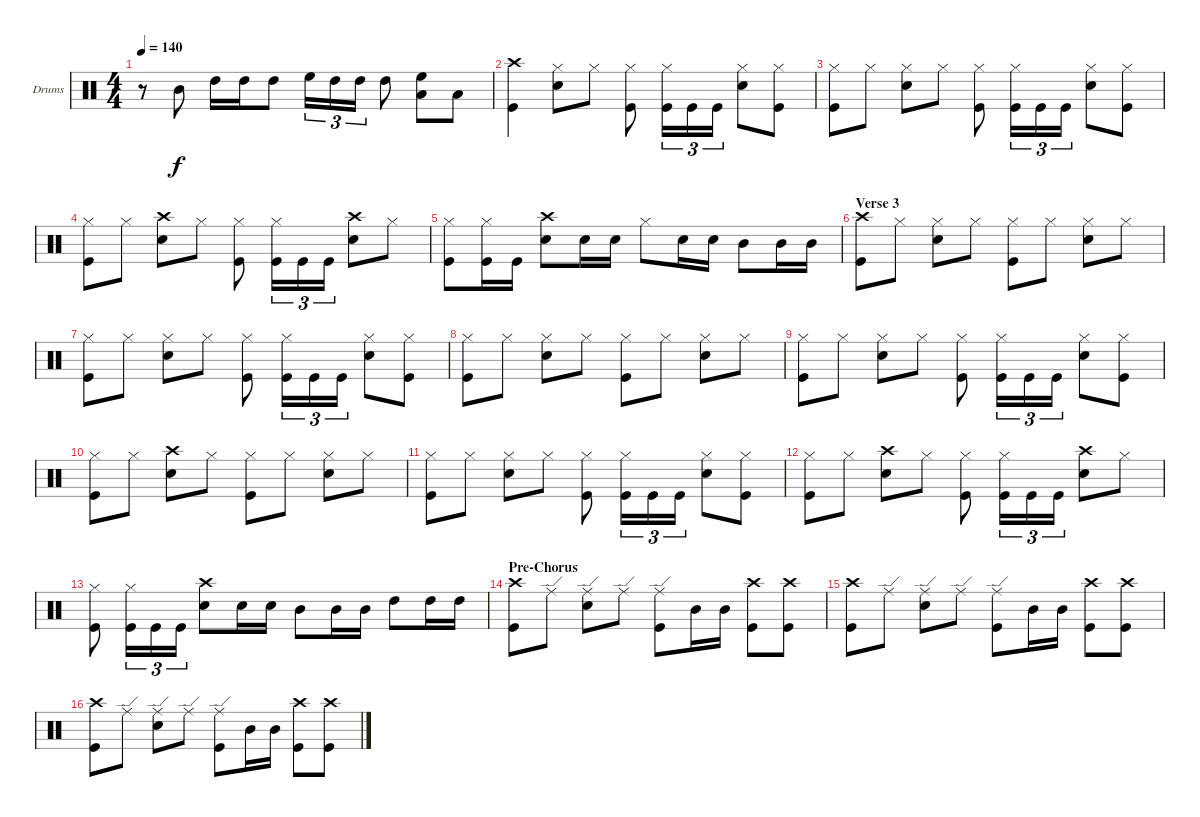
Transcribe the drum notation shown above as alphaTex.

\defaultSystemsLayout 4
\bracketExtendMode groupsimilarinstruments
\firstSystemTrackNameOrientation horizontal
\otherSystemsTrackNameOrientation horizontal
\track ("Drums" "Drums") {instrument percussion}
\staff {score}
\articulation defaults
\ts (4 4)
\tempo 140
\clef neutral
\ks c
r.8{dy f} "Mid Tom (hit)".8 "High Tom (hit)".16 "High Tom (hit)".16 "High Tom (hit)".8 "High Floor Tom (hit)".16{tu (3 2)} "High Tom (hit)".16{tu (3 2)} "High Tom (hit)".16{tu (3 2)} "High Tom (hit)".8 ("Low Tom (hit)" "High Floor Tom (hit)").8 "Low Tom (hit)".8 |
("Crash high (hit)" "Kick (hit)").4 ("Snare (hit) 2" "Hi-Hat (closed)").8 "Hi-Hat (closed)".8 ("Kick (hit)" "Hi-Hat (closed)").8 ("Kick (hit)" "Hi-Hat (closed)").16{tu (3 2)} "Kick (hit)".16{tu (3 2)} "Kick (hit)".16{tu (3 2)} ("Snare (hit) 2" "Hi-Hat (closed)").8 ("Hi-Hat (closed)" "Kick (hit)").8 |
("Kick (hit)" "Hi-Hat (closed)").8 "Hi-Hat (closed)".8 ("Snare (hit) 2" "Hi-Hat (closed)").8 "Hi-Hat (closed)".8 ("Kick (hit)" "Hi-Hat (closed)").8 ("Kick (hit)" "Hi-Hat (closed)").16{tu (3 2)} "Kick (hit)".16{tu (3 2)} "Kick (hit)".16{tu (3 2)} ("Snare (hit) 2" "Hi-Hat (closed)").8 ("Hi-Hat (closed)" "Kick (hit)").8 |
("Kick (hit)" "Hi-Hat (closed)").8 "Hi-Hat (closed)".8 ("Crash high (hit)" "Snare (hit) 2").8 "Hi-Hat (closed)".8 ("Kick (hit)" "Hi-Hat (closed)").8 ("Kick (hit)" "Hi-Hat (closed)").16{tu (3 2)} "Kick (hit)".16{tu (3 2)} "Kick (hit)".16{tu (3 2)} ("Crash high (hit)" "Snare (hit) 2").8 "Hi-Hat (closed)".8 |
("Kick (hit)" "Hi-Hat (closed)").8 ("Kick (hit)" "Hi-Hat (closed)").16 "Kick (hit)".16 ("Snare (hit) 2" "Crash high (hit)").8 "Snare (hit) 2".16 "Snare (hit) 2".16 "Hi-Hat (closed)".8 "Snare (hit) 2".16 "Snare (hit) 2".16 "Mid Tom (hit)".8 "Mid Tom (hit)".16 "Mid Tom (hit)".16 |
\section ("" "Verse 3")
("Kick (hit)" "Crash high (hit)").8 "Hi-Hat (closed)".8 ("Snare (hit) 2" "Hi-Hat (closed)").8 "Hi-Hat (closed)".8 ("Kick (hit)" "Hi-Hat (closed)").8 "Hi-Hat (closed)".8 ("Snare (hit) 2" "Hi-Hat (closed)").8 "Hi-Hat (closed)".8 |
("Kick (hit)" "Hi-Hat (closed)").8 "Hi-Hat (closed)".8 ("Hi-Hat (closed)" "Snare (hit) 2").8 "Hi-Hat (closed)".8 ("Kick (hit)" "Hi-Hat (closed)").8 ("Kick (hit)" "Hi-Hat (closed)").16{tu (3 2)} "Kick (hit)".16{tu (3 2)} "Kick (hit)".16{tu (3 2)} ("Snare (hit) 2" "Hi-Hat (closed)").8 ("Kick (hit)" "Hi-Hat (closed)").8 |
("Hi-Hat (closed)" "Kick (hit)").8 "Hi-Hat (closed)".8 ("Hi-Hat (closed)" "Snare (hit) 2").8 "Hi-Hat (closed)".8 ("Hi-Hat (closed)" "Kick (hit)").8 "Hi-Hat (closed)".8 ("Snare (hit) 2" "Hi-Hat (closed)").8 "Hi-Hat (closed)".8 |
("Kick (hit)" "Hi-Hat (closed)").8 "Hi-Hat (closed)".8 ("Hi-Hat (closed)" "Snare (hit) 2").8 "Hi-Hat (closed)".8 ("Kick (hit)" "Hi-Hat (closed)").8 ("Kick (hit)" "Hi-Hat (closed)").16{tu (3 2)} "Kick (hit)".16{tu (3 2)} "Kick (hit)".16{tu (3 2)} ("Snare (hit) 2" "Hi-Hat (closed)").8 ("Kick (hit)" "Hi-Hat (closed)").8 |
("Hi-Hat (closed)" "Kick (hit)").8 "Hi-Hat (closed)".8 ("Crash high (hit)" "Snare (hit) 2").8 "Hi-Hat (closed)".8 ("Hi-Hat (closed)" "Kick (hit)").8 "Hi-Hat (closed)".8 ("Snare (hit) 2" "Hi-Hat (closed)").8 "Hi-Hat (closed)".8 |
("Kick (hit)" "Hi-Hat (closed)").8 "Hi-Hat (closed)".8 ("Hi-Hat (closed)" "Snare (hit) 2").8 "Hi-Hat (closed)".8 ("Kick (hit)" "Hi-Hat (closed)").8 ("Kick (hit)" "Hi-Hat (closed)").16{tu (3 2)} "Kick (hit)".16{tu (3 2)} "Kick (hit)".16{tu (3 2)} ("Snare (hit) 2" "Hi-Hat (closed)").8 ("Kick (hit)" "Hi-Hat (closed)").8 |
("Kick (hit)" "Hi-Hat (closed)").8 "Hi-Hat (closed)".8 ("Snare (hit) 2" "Crash high (hit)").8 "Hi-Hat (closed)".8 ("Kick (hit)" "Hi-Hat (closed)").8 ("Kick (hit)" "Hi-Hat (closed)").16{tu (3 2)} "Kick (hit)".16{tu (3 2)} "Kick (hit)".16{tu (3 2)} ("Crash high (hit)" "Snare (hit) 2").8 "Hi-Hat (closed)".8 |
("Hi-Hat (closed)" "Kick (hit)").8 ("Hi-Hat (closed)" "Kick (hit)").16{tu (3 2)} "Kick (hit)".16{tu (3 2)} "Kick (hit)".16{tu (3 2)} ("Snare (hit) 2" "Crash high (hit)").8 "Snare (hit) 2".16 "Snare (hit) 2".16 "Mid Tom (hit)".8 "Mid Tom (hit)".16 "Mid Tom (hit)".16 "High Tom (hit)".8 "High Tom (hit)".16 "High Tom (hit)".16 |
\section ("" "Pre-Chorus")
("Crash high (hit)" "Kick (hit)").8 "Ride (edge)".8 ("Snare (hit) 2" "Ride (edge)").8 "Ride (edge)".8 ("Ride (edge)" "Kick (hit)").8 "Mid Tom (hit)".16 "Mid Tom (hit)".16 ("Crash high (hit)" "Kick (hit)").8 ("Crash high (hit)" "Kick (hit)").8 |
("Crash high (hit)" "Kick (hit)").8 "Ride (edge)".8 ("Snare (hit) 2" "Ride (edge)").8 "Ride (edge)".8 ("Ride (edge)" "Kick (hit)").8 "Mid Tom (hit)".16 "Mid Tom (hit)".16 ("Crash high (hit)" "Kick (hit)").8 ("Crash high (hit)" "Kick (hit)").8 |
("Crash high (hit)" "Kick (hit)").8 "Ride (edge)".8 ("Snare (hit) 2" "Ride (edge)").8 "Ride (edge)".8 ("Ride (edge)" "Kick (hit)").8 "Mid Tom (hit)".16 "Mid Tom (hit)".16 ("Crash high (hit)" "Kick (hit)").8 ("Crash high (hit)" "Kick (hit)").8
